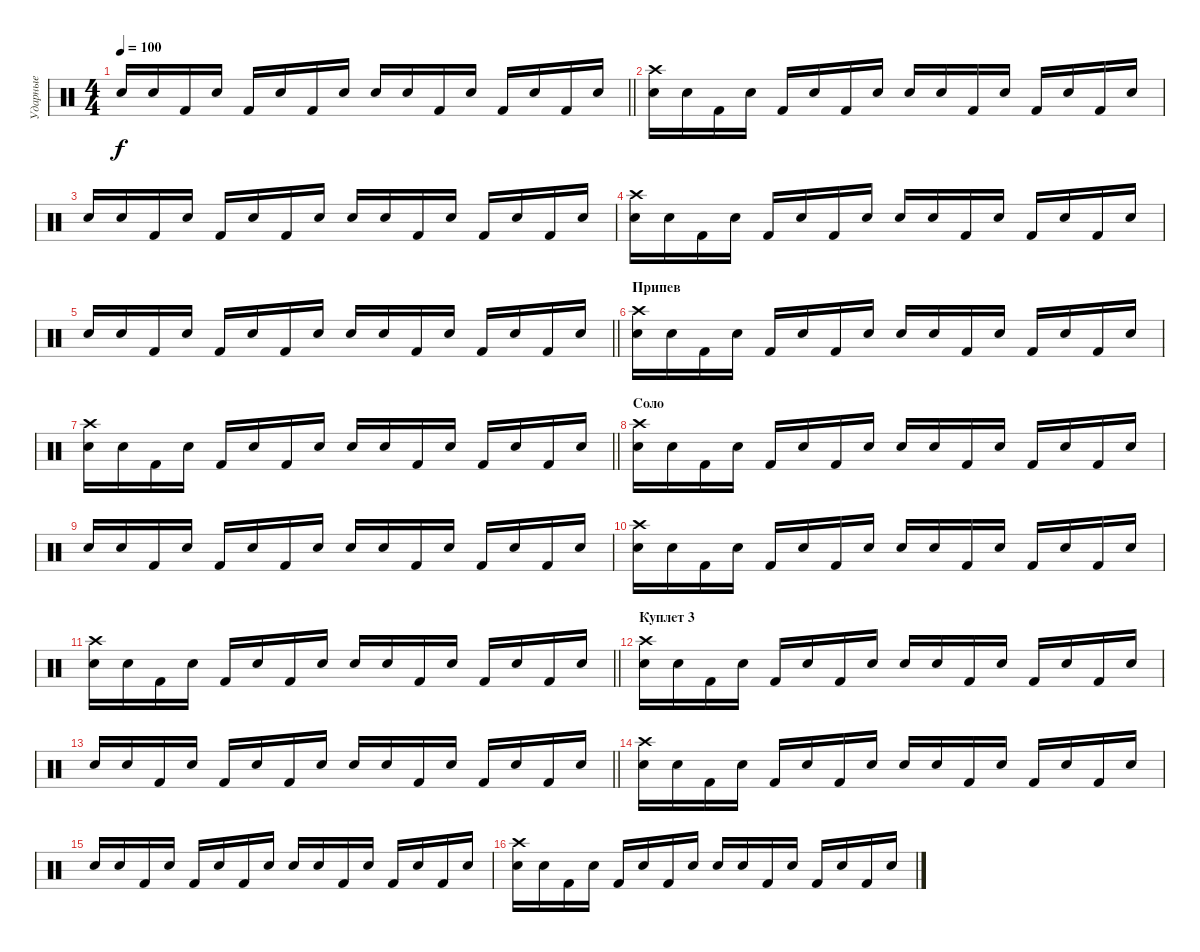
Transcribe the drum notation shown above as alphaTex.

\track ("Ударные" "Ударные") {instrument percussion}
\staff {score}
\articulation defaults
\ts (4 4)
\tempo 100
\clef neutral
\barLineRight lightlight
\ks c "Snare (hit) 2".16{dy f} "Snare (hit) 2".16 "Kick (hit) 2".16 "Snare (hit) 2".16 "Kick (hit) 2".16 "Snare (hit) 2".16 "Kick (hit) 2".16 "Snare (hit) 2".16 "Snare (hit) 2".16 "Snare (hit) 2".16 "Kick (hit) 2".16 "Snare (hit) 2".16 "Kick (hit) 2".16 "Snare (hit) 2".16 "Kick (hit) 2".16 "Snare (hit) 2".16
|
("Crash high (hit)" "Snare (hit) 2").16 "Snare (hit) 2".16 "Kick (hit) 2".16 "Snare (hit) 2".16 "Kick (hit) 2".16 "Snare (hit) 2".16 "Kick (hit) 2".16 "Snare (hit) 2".16 "Snare (hit) 2".16 "Snare (hit) 2".16 "Kick (hit) 2".16 "Snare (hit) 2".16 "Kick (hit) 2".16 "Snare (hit) 2".16 "Kick (hit) 2".16 "Snare (hit) 2".16 |
"Snare (hit) 2".16 "Snare (hit) 2".16 "Kick (hit) 2".16 "Snare (hit) 2".16 "Kick (hit) 2".16 "Snare (hit) 2".16 "Kick (hit) 2".16 "Snare (hit) 2".16 "Snare (hit) 2".16 "Snare (hit) 2".16 "Kick (hit) 2".16 "Snare (hit) 2".16 "Kick (hit) 2".16 "Snare (hit) 2".16 "Kick (hit) 2".16 "Snare (hit) 2".16 |
("Crash high (hit)" "Snare (hit) 2").16 "Snare (hit) 2".16 "Kick (hit) 2".16 "Snare (hit) 2".16 "Kick (hit) 2".16 "Snare (hit) 2".16 "Kick (hit) 2".16 "Snare (hit) 2".16 "Snare (hit) 2".16 "Snare (hit) 2".16 "Kick (hit) 2".16 "Snare (hit) 2".16 "Kick (hit) 2".16 "Snare (hit) 2".16 "Kick (hit) 2".16 "Snare (hit) 2".16 |
\barLineRight lightlight "Snare (hit) 2".16 "Snare (hit) 2".16 "Kick (hit) 2".16 "Snare (hit) 2".16 "Kick (hit) 2".16 "Snare (hit) 2".16 "Kick (hit) 2".16 "Snare (hit) 2".16 "Snare (hit) 2".16 "Snare (hit) 2".16 "Kick (hit) 2".16 "Snare (hit) 2".16 "Kick (hit) 2".16 "Snare (hit) 2".16 "Kick (hit) 2".16 "Snare (hit) 2".16
|
\section ("" "Припев")
("Crash high (hit)" "Snare (hit) 2").16 "Snare (hit) 2".16 "Kick (hit) 2".16 "Snare (hit) 2".16 "Kick (hit) 2".16 "Snare (hit) 2".16 "Kick (hit) 2".16 "Snare (hit) 2".16 "Snare (hit) 2".16 "Snare (hit) 2".16 "Kick (hit) 2".16 "Snare (hit) 2".16 "Kick (hit) 2".16 "Snare (hit) 2".16 "Kick (hit) 2".16 "Snare (hit) 2".16 |
\barLineRight lightlight
("Crash high (hit)" "Snare (hit) 2").16 "Snare (hit) 2".16 "Kick (hit) 2".16 "Snare (hit) 2".16 "Kick (hit) 2".16 "Snare (hit) 2".16 "Kick (hit) 2".16 "Snare (hit) 2".16 "Snare (hit) 2".16 "Snare (hit) 2".16 "Kick (hit) 2".16 "Snare (hit) 2".16 "Kick (hit) 2".16 "Snare (hit) 2".16 "Kick (hit) 2".16 "Snare (hit) 2".16 |
\section ("" "Соло")
("Crash high (hit)" "Snare (hit) 2").16 "Snare (hit) 2".16 "Kick (hit) 2".16 "Snare (hit) 2".16 "Kick (hit) 2".16 "Snare (hit) 2".16 "Kick (hit) 2".16 "Snare (hit) 2".16 "Snare (hit) 2".16 "Snare (hit) 2".16 "Kick (hit) 2".16 "Snare (hit) 2".16 "Kick (hit) 2".16 "Snare (hit) 2".16 "Kick (hit) 2".16 "Snare (hit) 2".16 |
"Snare (hit) 2".16 "Snare (hit) 2".16 "Kick (hit) 2".16 "Snare (hit) 2".16 "Kick (hit) 2".16 "Snare (hit) 2".16 "Kick (hit) 2".16 "Snare (hit) 2".16 "Snare (hit) 2".16 "Snare (hit) 2".16 "Kick (hit) 2".16 "Snare (hit) 2".16 "Kick (hit) 2".16 "Snare (hit) 2".16 "Kick (hit) 2".16 "Snare (hit) 2".16 |
("Crash high (hit)" "Snare (hit) 2").16 "Snare (hit) 2".16 "Kick (hit) 2".16 "Snare (hit) 2".16 "Kick (hit) 2".16 "Snare (hit) 2".16 "Kick (hit) 2".16 "Snare (hit) 2".16 "Snare (hit) 2".16 "Snare (hit) 2".16 "Kick (hit) 2".16 "Snare (hit) 2".16 "Kick (hit) 2".16 "Snare (hit) 2".16 "Kick (hit) 2".16 "Snare (hit) 2".16 |
\barLineRight lightlight
("Crash high (hit)" "Snare (hit) 2").16 "Snare (hit) 2".16 "Kick (hit) 2".16 "Snare (hit) 2".16 "Kick (hit) 2".16 "Snare (hit) 2".16 "Kick (hit) 2".16 "Snare (hit) 2".16 "Snare (hit) 2".16 "Snare (hit) 2".16 "Kick (hit) 2".16 "Snare (hit) 2".16 "Kick (hit) 2".16 "Snare (hit) 2".16 "Kick (hit) 2".16 "Snare (hit) 2".16 |
\section ("" "Куплет 3")
("Crash high (hit)" "Snare (hit) 2").16 "Snare (hit) 2".16 "Kick (hit) 2".16 "Snare (hit) 2".16 "Kick (hit) 2".16 "Snare (hit) 2".16 "Kick (hit) 2".16 "Snare (hit) 2".16 "Snare (hit) 2".16 "Snare (hit) 2".16 "Kick (hit) 2".16 "Snare (hit) 2".16 "Kick (hit) 2".16 "Snare (hit) 2".16 "Kick (hit) 2".16 "Snare (hit) 2".16 |
\barLineRight lightlight "Snare (hit) 2".16 "Snare (hit) 2".16 "Kick (hit) 2".16 "Snare (hit) 2".16 "Kick (hit) 2".16 "Snare (hit) 2".16 "Kick (hit) 2".16 "Snare (hit) 2".16 "Snare (hit) 2".16 "Snare (hit) 2".16 "Kick (hit) 2".16 "Snare (hit) 2".16 "Kick (hit) 2".16 "Snare (hit) 2".16 "Kick (hit) 2".16 "Snare (hit) 2".16
|
("Crash high (hit)" "Snare (hit) 2").16 "Snare (hit) 2".16 "Kick (hit) 2".16 "Snare (hit) 2".16 "Kick (hit) 2".16 "Snare (hit) 2".16 "Kick (hit) 2".16 "Snare (hit) 2".16 "Snare (hit) 2".16 "Snare (hit) 2".16 "Kick (hit) 2".16 "Snare (hit) 2".16 "Kick (hit) 2".16 "Snare (hit) 2".16 "Kick (hit) 2".16 "Snare (hit) 2".16 |
"Snare (hit) 2".16 "Snare (hit) 2".16 "Kick (hit) 2".16 "Snare (hit) 2".16 "Kick (hit) 2".16 "Snare (hit) 2".16 "Kick (hit) 2".16 "Snare (hit) 2".16 "Snare (hit) 2".16 "Snare (hit) 2".16 "Kick (hit) 2".16 "Snare (hit) 2".16 "Kick (hit) 2".16 "Snare (hit) 2".16 "Kick (hit) 2".16 "Snare (hit) 2".16 |
("Crash high (hit)" "Snare (hit) 2").16 "Snare (hit) 2".16 "Kick (hit) 2".16 "Snare (hit) 2".16 "Kick (hit) 2".16 "Snare (hit) 2".16 "Kick (hit) 2".16 "Snare (hit) 2".16 "Snare (hit) 2".16 "Snare (hit) 2".16 "Kick (hit) 2".16 "Snare (hit) 2".16 "Kick (hit) 2".16 "Snare (hit) 2".16 "Kick (hit) 2".16 "Snare (hit) 2".16
